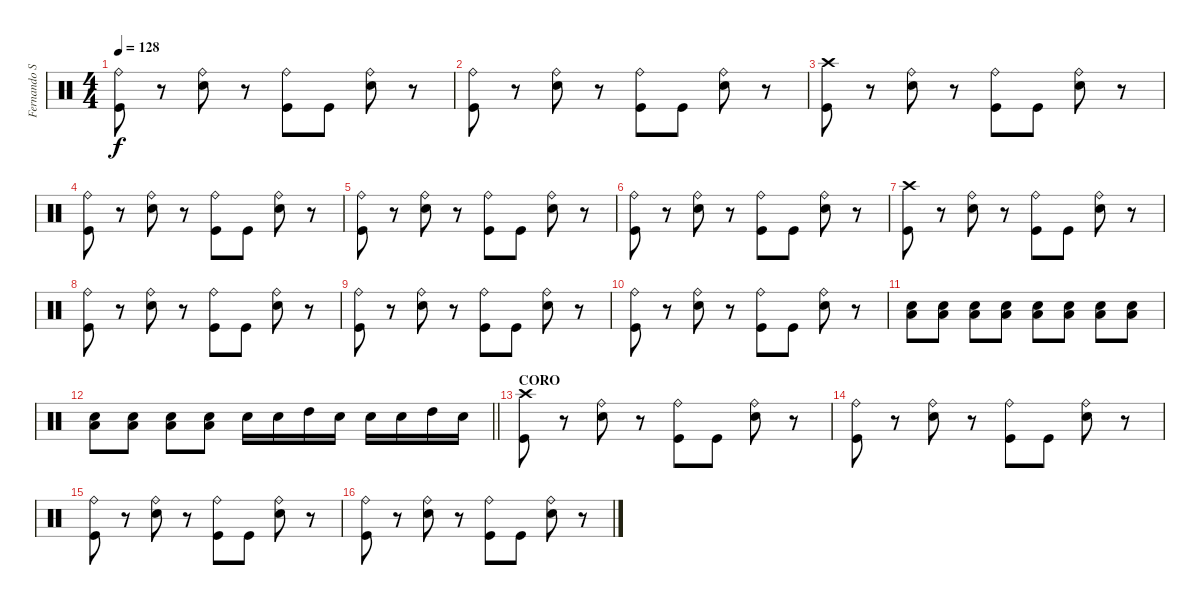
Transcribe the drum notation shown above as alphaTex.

\track ("Fernando Scarcella" "Fernando S") {instrument percussion}
\staff {score}
\articulation defaults
\ts (4 4)
\tempo 128
\clef neutral
\ks c
("Kick (hit)" "Ride (bell)").8{dy f} r.8 ("Snare (hit) 2" "Ride (bell)").8 r.8 ("Kick (hit)" "Ride (bell)").8 "Kick (hit)".8 ("Snare (hit) 2" "Ride (bell)").8 r.8 |
("Kick (hit)" "Ride (bell)").8 r.8 ("Snare (hit) 2" "Ride (bell)").8 r.8 ("Kick (hit)" "Ride (bell)").8 "Kick (hit)".8 ("Snare (hit) 2" "Ride (bell)").8 r.8 |
("Kick (hit)" "Crash high (hit)").8 r.8 ("Snare (hit) 2" "Ride (bell)").8 r.8 ("Kick (hit)" "Ride (bell)").8 "Kick (hit)".8 ("Snare (hit) 2" "Ride (bell)").8 r.8 |
("Kick (hit)" "Ride (bell)").8 r.8 ("Snare (hit) 2" "Ride (bell)").8 r.8 ("Kick (hit)" "Ride (bell)").8 "Kick (hit)".8 ("Snare (hit) 2" "Ride (bell)").8 r.8 |
("Kick (hit)" "Ride (bell)").8 r.8 ("Snare (hit) 2" "Ride (bell)").8 r.8 ("Kick (hit)" "Ride (bell)").8 "Kick (hit)".8 ("Snare (hit) 2" "Ride (bell)").8 r.8 |
("Kick (hit)" "Ride (bell)").8 r.8 ("Snare (hit) 2" "Ride (bell)").8 r.8 ("Kick (hit)" "Ride (bell)").8 "Kick (hit)".8 ("Snare (hit) 2" "Ride (bell)").8 r.8 |
("Kick (hit)" "Crash high (hit)").8 r.8 ("Snare (hit) 2" "Ride (bell)").8 r.8 ("Kick (hit)" "Ride (bell)").8 "Kick (hit)".8 ("Snare (hit) 2" "Ride (bell)").8 r.8 |
("Kick (hit)" "Ride (bell)").8 r.8 ("Snare (hit) 2" "Ride (bell)").8 r.8 ("Kick (hit)" "Ride (bell)").8 "Kick (hit)".8 ("Snare (hit) 2" "Ride (bell)").8 r.8 |
("Kick (hit)" "Ride (bell)").8 r.8 ("Snare (hit) 2" "Ride (bell)").8 r.8 ("Kick (hit)" "Ride (bell)").8 "Kick (hit)".8 ("Snare (hit) 2" "Ride (bell)").8 r.8 |
("Kick (hit)" "Ride (bell)").8 r.8 ("Snare (hit) 2" "Ride (bell)").8 r.8 ("Kick (hit)" "Ride (bell)").8 "Kick (hit)".8 ("Snare (hit) 2" "Ride (bell)").8 r.8 |
("Low Floor Tom (hit)" "Snare (hit) 2").8 ("Low Floor Tom (hit)" "Snare (hit) 2").8 ("Low Floor Tom (hit)" "Snare (hit) 2").8 ("Low Floor Tom (hit)" "Snare (hit) 2").8 ("Low Floor Tom (hit)" "Snare (hit) 2").8 ("Low Floor Tom (hit)" "Snare (hit) 2").8 ("Low Floor Tom (hit)" "Snare (hit) 2").8 ("Low Floor Tom (hit)" "Snare (hit) 2").8 |
\barLineRight lightlight
("Low Floor Tom (hit)" "Snare (hit) 2").8 ("Low Floor Tom (hit)" "Snare (hit) 2").8 ("Low Floor Tom (hit)" "Snare (hit) 2").8 ("Low Floor Tom (hit)" "Snare (hit) 2").8 "Snare (hit) 2".16 "Snare (hit) 2".16 "High Tom (hit)".16 "Snare (hit) 2".16 "Snare (hit) 2".16 "Snare (hit) 2".16 "High Tom (hit)".16 "Snare (hit) 2".16 |
\section ("" "CORO")
("Kick (hit)" "Crash high (hit)").8 r.8 ("Snare (hit) 2" "Ride (bell)").8 r.8 ("Kick (hit)" "Ride (bell)").8 "Kick (hit)".8 ("Snare (hit) 2" "Ride (bell)").8 r.8 |
("Kick (hit)" "Ride (bell)").8 r.8 ("Snare (hit) 2" "Ride (bell)").8 r.8 ("Kick (hit)" "Ride (bell)").8 "Kick (hit)".8 ("Snare (hit) 2" "Ride (bell)").8 r.8 |
("Kick (hit)" "Ride (bell)").8 r.8 ("Snare (hit) 2" "Ride (bell)").8 r.8 ("Kick (hit)" "Ride (bell)").8 "Kick (hit)".8 ("Snare (hit) 2" "Ride (bell)").8 r.8 |
("Kick (hit)" "Ride (bell)").8 r.8 ("Snare (hit) 2" "Ride (bell)").8 r.8 ("Kick (hit)" "Ride (bell)").8 "Kick (hit)".8 ("Snare (hit) 2" "Ride (bell)").8 r.8
